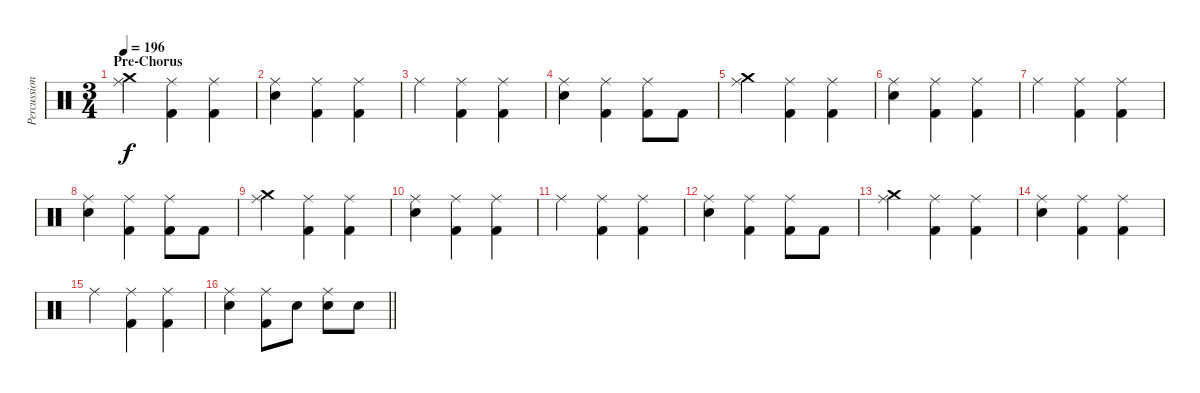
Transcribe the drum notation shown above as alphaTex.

\track ("Percussion" "Percussion") {instrument percussion}
\staff {score}
\articulation defaults
\ts (3 4)
\section ("" "Pre-Chorus")
\tempo 196
\clef neutral
\ks c
("Crash medium (hit)" "Ride (middle)").4{dy f} ("Ride (middle)" "Kick (hit) 2").4 ("Ride (middle)" "Kick (hit) 2").4 |
("Ride (middle)" "Electric Snare (hit)").4 ("Ride (middle)" "Kick (hit) 2").4 ("Ride (middle)" "Kick (hit) 2").4 |
"Ride (middle)".4 ("Ride (middle)" "Kick (hit) 2").4 ("Ride (middle)" "Kick (hit) 2").4 |
("Ride (middle)" "Electric Snare (hit)").4 ("Ride (middle)" "Kick (hit) 2").4 ("Ride (middle)" "Kick (hit) 2").8 "Kick (hit) 2".8 |
("Crash medium (hit)" "Ride (middle)").4 ("Ride (middle)" "Kick (hit) 2").4 ("Ride (middle)" "Kick (hit) 2").4 |
("Ride (middle)" "Electric Snare (hit)").4 ("Ride (middle)" "Kick (hit) 2").4 ("Ride (middle)" "Kick (hit) 2").4 |
"Ride (middle)".4 ("Ride (middle)" "Kick (hit) 2").4 ("Ride (middle)" "Kick (hit) 2").4 |
("Ride (middle)" "Electric Snare (hit)").4 ("Ride (middle)" "Kick (hit) 2").4 ("Ride (middle)" "Kick (hit) 2").8 "Kick (hit) 2".8 |
("Crash medium (hit)" "Ride (middle)").4 ("Ride (middle)" "Kick (hit) 2").4 ("Ride (middle)" "Kick (hit) 2").4 |
("Ride (middle)" "Electric Snare (hit)").4 ("Ride (middle)" "Kick (hit) 2").4 ("Ride (middle)" "Kick (hit) 2").4 |
"Ride (middle)".4 ("Ride (middle)" "Kick (hit) 2").4 ("Ride (middle)" "Kick (hit) 2").4 |
("Ride (middle)" "Electric Snare (hit)").4 ("Ride (middle)" "Kick (hit) 2").4 ("Ride (middle)" "Kick (hit) 2").8 "Kick (hit) 2".8 |
("Crash medium (hit)" "Ride (middle)").4 ("Ride (middle)" "Kick (hit) 2").4 ("Ride (middle)" "Kick (hit) 2").4 |
("Ride (middle)" "Electric Snare (hit)").4 ("Ride (middle)" "Kick (hit) 2").4 ("Ride (middle)" "Kick (hit) 2").4 |
"Ride (middle)".4 ("Ride (middle)" "Kick (hit) 2").4 ("Ride (middle)" "Kick (hit) 2").4 |
\barLineRight lightlight
("Ride (middle)" "Electric Snare (hit)").4 ("Ride (middle)" "Kick (hit) 2").8 "Electric Snare (hit)".8 ("Ride (middle)" "Electric Snare (hit)").8 "Electric Snare (hit)".8
